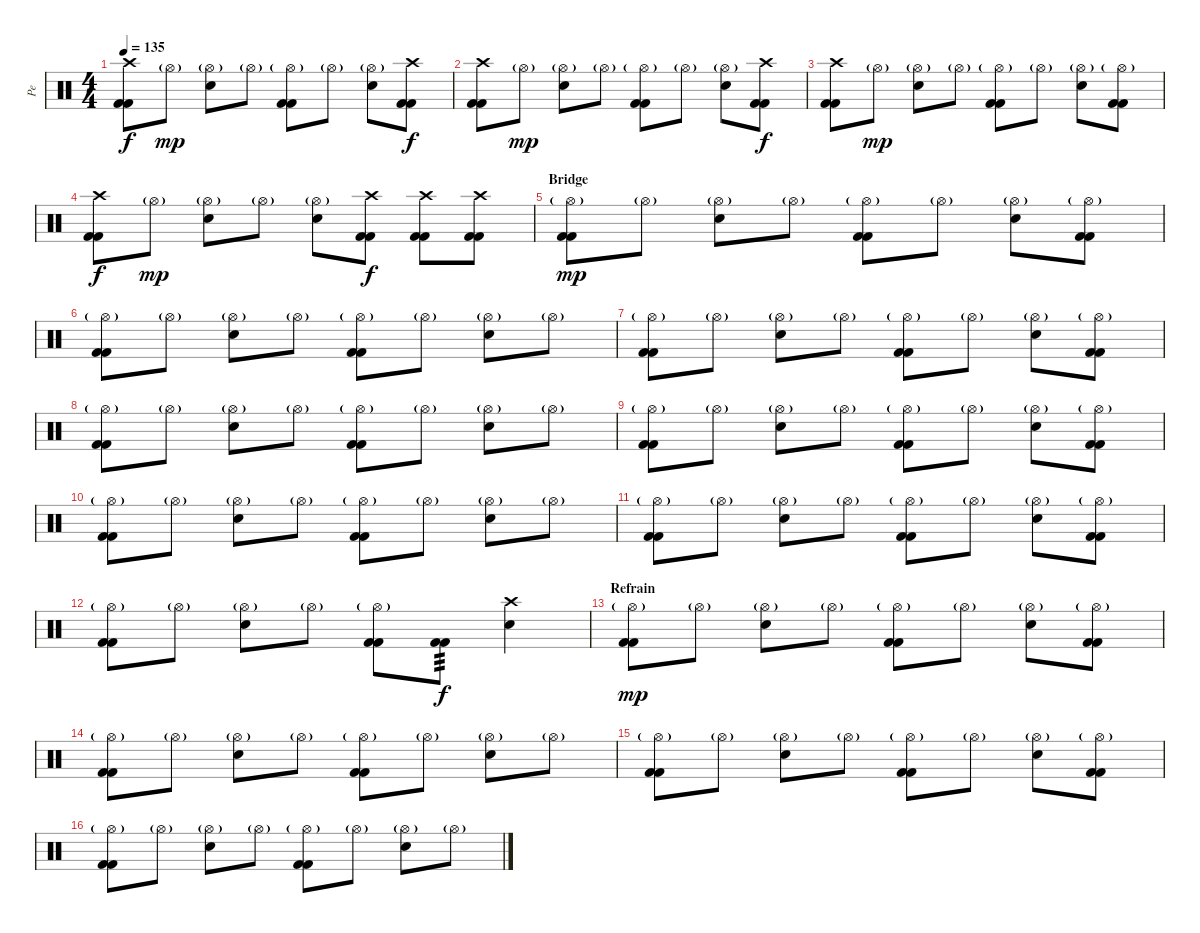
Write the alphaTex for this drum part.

\track ("Pe" "Pe") {instrument percussion}
\staff {score}
\articulation defaults
\ts (4 4)
\tempo 135
\clef neutral
\ks c
("Crash high (hit)" "Kick (hit) 2" "Kick (hit) 2").8{dy f} "Hi-Hat (open)"{g}.8{dy mp} ("Electric Snare (hit)" "Hi-Hat (open)"{g}).8 "Hi-Hat (open)"{g}.8 ("Hi-Hat (open)"{g} "Kick (hit) 2" "Kick (hit) 2").8 "Hi-Hat (open)"{g}.8 ("Electric Snare (hit)" "Hi-Hat (open)"{g}).8 ("Crash high (hit)" "Kick (hit) 2" "Kick (hit) 2").8{dy f} |
("Crash high (hit)" "Kick (hit) 2" "Kick (hit) 2").8 "Hi-Hat (open)"{g}.8{dy mp} ("Electric Snare (hit)" "Hi-Hat (open)"{g}).8 "Hi-Hat (open)"{g}.8 ("Hi-Hat (open)"{g} "Kick (hit) 2" "Kick (hit) 2").8 "Hi-Hat (open)"{g}.8 ("Electric Snare (hit)" "Hi-Hat (open)"{g}).8 ("Crash high (hit)" "Kick (hit) 2" "Kick (hit) 2").8{dy f} |
("Crash high (hit)" "Kick (hit) 2" "Kick (hit) 2").8 "Hi-Hat (open)"{g}.8{dy mp} ("Electric Snare (hit)" "Hi-Hat (open)"{g}).8 "Hi-Hat (open)"{g}.8 ("Hi-Hat (open)"{g} "Kick (hit) 2" "Kick (hit) 2").8 "Hi-Hat (open)"{g}.8 ("Electric Snare (hit)" "Hi-Hat (open)"{g}).8 ("Kick (hit) 2" "Kick (hit) 2" "Hi-Hat (open)"{g}).8 |
("Crash high (hit)" "Kick (hit) 2" "Kick (hit) 2").8{dy f} "Hi-Hat (open)"{g}.8{dy mp} ("Electric Snare (hit)" "Hi-Hat (open)"{g}).8 "Hi-Hat (open)"{g}.8 ("Hi-Hat (open)"{g} "Electric Snare (hit)").8 ("Kick (hit) 2" "Kick (hit) 2" "Crash high (hit)").8{dy f} ("Crash high (hit)" "Kick (hit) 2" "Kick (hit) 2").8 ("Crash high (hit)" "Kick (hit) 2" "Kick (hit) 2").8 |
\section ("" "Bridge ")
("Hi-Hat (open)"{g} "Kick (hit) 2" "Kick (hit) 2").8{dy mp} "Hi-Hat (open)"{g}.8 ("Electric Snare (hit)" "Hi-Hat (open)"{g}).8 "Hi-Hat (open)"{g}.8 ("Hi-Hat (open)"{g} "Kick (hit) 2" "Kick (hit) 2").8 "Hi-Hat (open)"{g}.8 ("Electric Snare (hit)" "Hi-Hat (open)"{g}).8 ("Kick (hit) 2" "Kick (hit) 2" "Hi-Hat (open)"{g}).8 |
("Kick (hit) 2" "Kick (hit) 2" "Hi-Hat (open)"{g}).8 "Hi-Hat (open)"{g}.8 ("Hi-Hat (open)"{g} "Electric Snare (hit)").8 "Hi-Hat (open)"{g}.8 ("Hi-Hat (open)"{g} "Kick (hit) 2" "Kick (hit) 2").8 "Hi-Hat (open)"{g}.8 ("Electric Snare (hit)" "Hi-Hat (open)"{g}).8 "Hi-Hat (open)"{g}.8 |
("Hi-Hat (open)"{g} "Kick (hit) 2" "Kick (hit) 2").8 "Hi-Hat (open)"{g}.8 ("Electric Snare (hit)" "Hi-Hat (open)"{g}).8 "Hi-Hat (open)"{g}.8 ("Hi-Hat (open)"{g} "Kick (hit) 2" "Kick (hit) 2").8 "Hi-Hat (open)"{g}.8 ("Electric Snare (hit)" "Hi-Hat (open)"{g}).8 ("Kick (hit) 2" "Kick (hit) 2" "Hi-Hat (open)"{g}).8 |
("Hi-Hat (open)"{g} "Kick (hit) 2" "Kick (hit) 2").8 "Hi-Hat (open)"{g}.8 ("Electric Snare (hit)" "Hi-Hat (open)"{g}).8 "Hi-Hat (open)"{g}.8 ("Hi-Hat (open)"{g} "Kick (hit) 2" "Kick (hit) 2").8 "Hi-Hat (open)"{g}.8 ("Electric Snare (hit)" "Hi-Hat (open)"{g}).8 "Hi-Hat (open)"{g}.8 |
("Hi-Hat (open)"{g} "Kick (hit) 2" "Kick (hit) 2").8 "Hi-Hat (open)"{g}.8 ("Electric Snare (hit)" "Hi-Hat (open)"{g}).8 "Hi-Hat (open)"{g}.8 ("Hi-Hat (open)"{g} "Kick (hit) 2" "Kick (hit) 2").8 "Hi-Hat (open)"{g}.8 ("Electric Snare (hit)" "Hi-Hat (open)"{g}).8 ("Kick (hit) 2" "Kick (hit) 2" "Hi-Hat (open)"{g}).8 |
("Kick (hit) 2" "Kick (hit) 2" "Hi-Hat (open)"{g}).8 "Hi-Hat (open)"{g}.8 ("Hi-Hat (open)"{g} "Electric Snare (hit)").8 "Hi-Hat (open)"{g}.8 ("Hi-Hat (open)"{g} "Kick (hit) 2" "Kick (hit) 2").8 "Hi-Hat (open)"{g}.8 ("Electric Snare (hit)" "Hi-Hat (open)"{g}).8 "Hi-Hat (open)"{g}.8 |
("Hi-Hat (open)"{g} "Kick (hit) 2" "Kick (hit) 2").8 "Hi-Hat (open)"{g}.8 ("Electric Snare (hit)" "Hi-Hat (open)"{g}).8 "Hi-Hat (open)"{g}.8 ("Hi-Hat (open)"{g} "Kick (hit) 2" "Kick (hit) 2").8 "Hi-Hat (open)"{g}.8 ("Electric Snare (hit)" "Hi-Hat (open)"{g}).8 ("Kick (hit) 2" "Kick (hit) 2" "Hi-Hat (open)"{g}).8 |
("Hi-Hat (open)"{g} "Kick (hit) 2" "Kick (hit) 2").8 "Hi-Hat (open)"{g}.8 ("Electric Snare (hit)" "Hi-Hat (open)"{g}).8 "Hi-Hat (open)"{g}.8 ("Hi-Hat (open)"{g} "Kick (hit) 2" "Kick (hit) 2").8 ("Kick (hit) 2" "Kick (hit) 2").8{tp 3 dy f} ("Electric Snare (hit)" "Crash high (hit)").4 |
\section ("" "Refrain")
("Hi-Hat (open)"{g} "Kick (hit) 2" "Kick (hit) 2").8{dy mp} "Hi-Hat (open)"{g}.8 ("Electric Snare (hit)" "Hi-Hat (open)"{g}).8 "Hi-Hat (open)"{g}.8 ("Hi-Hat (open)"{g} "Kick (hit) 2" "Kick (hit) 2").8 "Hi-Hat (open)"{g}.8 ("Electric Snare (hit)" "Hi-Hat (open)"{g}).8 ("Kick (hit) 2" "Kick (hit) 2" "Hi-Hat (open)"{g}).8 |
("Kick (hit) 2" "Kick (hit) 2" "Hi-Hat (open)"{g}).8 "Hi-Hat (open)"{g}.8 ("Hi-Hat (open)"{g} "Electric Snare (hit)").8 "Hi-Hat (open)"{g}.8 ("Hi-Hat (open)"{g} "Kick (hit) 2" "Kick (hit) 2").8 "Hi-Hat (open)"{g}.8 ("Electric Snare (hit)" "Hi-Hat (open)"{g}).8 "Hi-Hat (open)"{g}.8 |
("Hi-Hat (open)"{g} "Kick (hit) 2" "Kick (hit) 2").8 "Hi-Hat (open)"{g}.8 ("Electric Snare (hit)" "Hi-Hat (open)"{g}).8 "Hi-Hat (open)"{g}.8 ("Hi-Hat (open)"{g} "Kick (hit) 2" "Kick (hit) 2").8 "Hi-Hat (open)"{g}.8 ("Electric Snare (hit)" "Hi-Hat (open)"{g}).8 ("Kick (hit) 2" "Kick (hit) 2" "Hi-Hat (open)"{g}).8 |
("Hi-Hat (open)"{g} "Kick (hit) 2" "Kick (hit) 2").8 "Hi-Hat (open)"{g}.8 ("Electric Snare (hit)" "Hi-Hat (open)"{g}).8 "Hi-Hat (open)"{g}.8 ("Hi-Hat (open)"{g} "Kick (hit) 2" "Kick (hit) 2").8 "Hi-Hat (open)"{g}.8 ("Electric Snare (hit)" "Hi-Hat (open)"{g}).8 "Hi-Hat (open)"{g}.8
